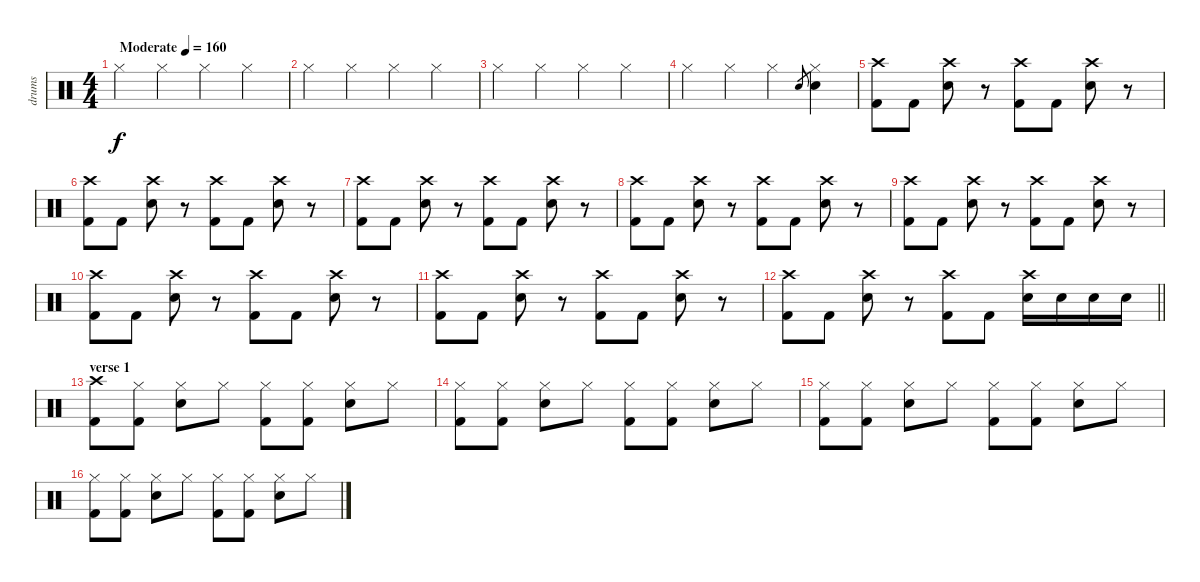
\track ("drums" "drums") {instrument percussion}
\staff {score}
\articulation defaults
\ts (4 4)
\tempo (160 "Moderate")
\clef neutral
\ks c "Hi-Hat (closed)".4{dy f} "Hi-Hat (closed)".4 "Hi-Hat (closed)".4 "Hi-Hat (closed)".4
|
"Hi-Hat (closed)".4 "Hi-Hat (closed)".4 "Hi-Hat (closed)".4 "Hi-Hat (closed)".4 |
"Hi-Hat (closed)".4 "Hi-Hat (closed)".4 "Hi-Hat (closed)".4 "Hi-Hat (closed)".4 |
"Hi-Hat (closed)".4 "Hi-Hat (closed)".4 "Hi-Hat (closed)".4 "Electric Snare (hit)".8{gr} ("Hi-Hat (closed)" "Electric Snare (hit)").4 |
("Crash high (hit)" "Kick (hit) 2").8 "Kick (hit) 2".8 ("Crash high (hit)" "Electric Snare (hit)").8 r.8 ("Crash high (hit)" "Kick (hit) 2").8 "Kick (hit) 2".8 ("Crash high (hit)" "Electric Snare (hit)").8 r.8 |
("Crash high (hit)" "Kick (hit) 2").8 "Kick (hit) 2".8 ("Crash high (hit)" "Electric Snare (hit)").8 r.8 ("Crash high (hit)" "Kick (hit) 2").8 "Kick (hit) 2".8 ("Crash high (hit)" "Electric Snare (hit)").8 r.8 |
("Crash high (hit)" "Kick (hit) 2").8 "Kick (hit) 2".8 ("Crash high (hit)" "Electric Snare (hit)").8 r.8 ("Crash high (hit)" "Kick (hit) 2").8 "Kick (hit) 2".8 ("Crash high (hit)" "Electric Snare (hit)").8 r.8 |
("Crash high (hit)" "Kick (hit) 2").8 "Kick (hit) 2".8 ("Crash high (hit)" "Electric Snare (hit)").8 r.8 ("Crash high (hit)" "Kick (hit) 2").8 "Kick (hit) 2".8 ("Crash high (hit)" "Electric Snare (hit)").8 r.8 |
("Crash high (hit)" "Kick (hit) 2").8 "Kick (hit) 2".8 ("Crash high (hit)" "Electric Snare (hit)").8 r.8 ("Crash high (hit)" "Kick (hit) 2").8 "Kick (hit) 2".8 ("Crash high (hit)" "Electric Snare (hit)").8 r.8 |
("Crash high (hit)" "Kick (hit) 2").8 "Kick (hit) 2".8 ("Crash high (hit)" "Electric Snare (hit)").8 r.8 ("Crash high (hit)" "Kick (hit) 2").8 "Kick (hit) 2".8 ("Crash high (hit)" "Electric Snare (hit)").8 r.8 |
("Crash high (hit)" "Kick (hit) 2").8 "Kick (hit) 2".8 ("Crash high (hit)" "Electric Snare (hit)").8 r.8 ("Crash high (hit)" "Kick (hit) 2").8 "Kick (hit) 2".8 ("Crash high (hit)" "Electric Snare (hit)").8 r.8 |
\barLineRight lightlight
("Crash high (hit)" "Kick (hit) 2").8 "Kick (hit) 2".8 ("Crash high (hit)" "Electric Snare (hit)").8 r.8 ("Crash high (hit)" "Kick (hit) 2").8 "Kick (hit) 2".8 ("Crash high (hit)" "Electric Snare (hit)").16 "Electric Snare (hit)".16 "Electric Snare (hit)".16 "Electric Snare (hit)".16 |
\section ("" "verse 1")
("Crash high (hit)" "Kick (hit) 2").8 ("Hi-Hat (closed)" "Kick (hit) 2").8 ("Hi-Hat (closed)" "Electric Snare (hit)").8 "Hi-Hat (closed)".8 ("Hi-Hat (closed)" "Kick (hit) 2").8 ("Hi-Hat (closed)" "Kick (hit) 2").8 ("Hi-Hat (closed)" "Electric Snare (hit)").8 "Hi-Hat (closed)".8 |
("Hi-Hat (closed)" "Kick (hit) 2").8 ("Hi-Hat (closed)" "Kick (hit) 2").8 ("Hi-Hat (closed)" "Electric Snare (hit)").8 "Hi-Hat (closed)".8 ("Hi-Hat (closed)" "Kick (hit) 2").8 ("Hi-Hat (closed)" "Kick (hit) 2").8 ("Hi-Hat (closed)" "Electric Snare (hit)").8 "Hi-Hat (closed)".8 |
("Hi-Hat (closed)" "Kick (hit) 2").8 ("Hi-Hat (closed)" "Kick (hit) 2").8 ("Hi-Hat (closed)" "Electric Snare (hit)").8 "Hi-Hat (closed)".8 ("Hi-Hat (closed)" "Kick (hit) 2").8 ("Hi-Hat (closed)" "Kick (hit) 2").8 ("Hi-Hat (closed)" "Electric Snare (hit)").8 "Hi-Hat (closed)".8 |
("Hi-Hat (closed)" "Kick (hit) 2").8 ("Hi-Hat (closed)" "Kick (hit) 2").8 ("Hi-Hat (closed)" "Electric Snare (hit)").8 "Hi-Hat (closed)".8 ("Hi-Hat (closed)" "Kick (hit) 2").8 ("Hi-Hat (closed)" "Kick (hit) 2").8 ("Hi-Hat (closed)" "Electric Snare (hit)").8 "Hi-Hat (closed)".8
